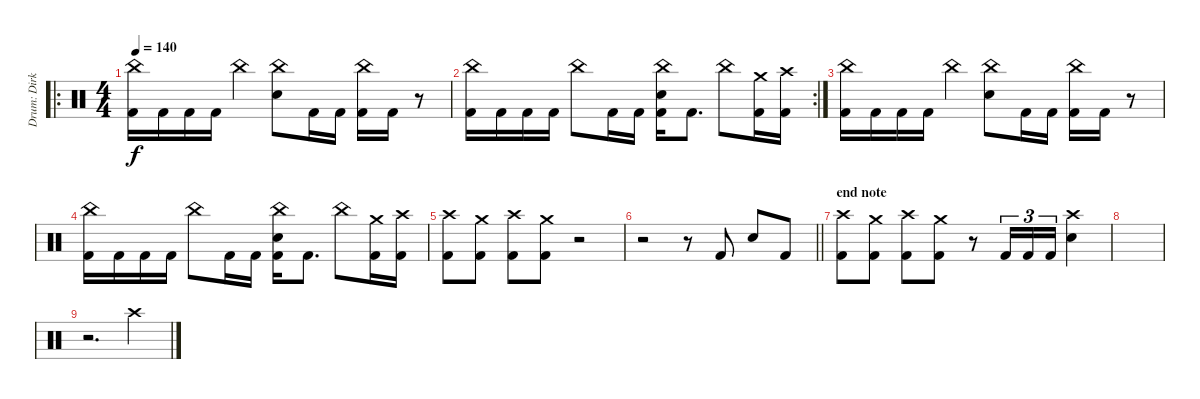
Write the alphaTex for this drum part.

\track ("Drum: Dirk" "Drum: Dirk") {instrument percussion}
\staff {score}
\articulation defaults
\ro
\ts (4 4)
\tempo 140
\clef neutral
\ks c
("China (hit)" "Kick (hit) 2").16{dy f} "Kick (hit) 2".16 "Kick (hit) 2".16 "Kick (hit) 2".16 "China (hit)".4 ("China (hit)" "Electric Snare (hit)").8 "Kick (hit) 2".16 "Kick (hit) 2".16 ("China (hit)" "Kick (hit) 2").16 "Kick (hit) 2".16 r.8 |
\rc 2
("China (hit)" "Kick (hit) 2").16 "Kick (hit) 2".16 "Kick (hit) 2".16 "Kick (hit) 2".16 "China (hit)".8 "Kick (hit) 2".16 "Kick (hit) 2".16 ("China (hit)" "Electric Snare (hit)" "Kick (hit) 2").16 "Kick (hit) 2".8{d} "China (hit)".8 ("Crash medium (hit)" "Kick (hit) 2").16 ("Crash high (hit)" "Kick (hit) 2").16 |
("China (hit)" "Kick (hit) 2").16 "Kick (hit) 2".16 "Kick (hit) 2".16 "Kick (hit) 2".16 "China (hit)".4 ("China (hit)" "Electric Snare (hit)").8 "Kick (hit) 2".16 "Kick (hit) 2".16 ("China (hit)" "Kick (hit) 2").16 "Kick (hit) 2".16 r.8 |
("China (hit)" "Kick (hit) 2").16 "Kick (hit) 2".16 "Kick (hit) 2".16 "Kick (hit) 2".16 "China (hit)".8 "Kick (hit) 2".16 "Kick (hit) 2".16 ("China (hit)" "Electric Snare (hit)" "Kick (hit) 2").16 "Kick (hit) 2".8{d} "China (hit)".8 ("Crash medium (hit)" "Kick (hit) 2").16 ("Crash high (hit)" "Kick (hit) 2").16 |
("Crash high (hit)" "Kick (hit) 2").8 ("Crash medium (hit)" "Kick (hit) 2").8 ("Crash high (hit)" "Kick (hit) 2").8 ("Crash medium (hit)" "Kick (hit) 2").8 r.2 |
\barLineRight lightlight
r.2 r.8 "Kick (hit) 2".8 "Electric Snare (hit)".8 "Kick (hit) 2".8 |
\section ("" "end note")
("Crash high (hit)" "Kick (hit) 2").8 ("Crash medium (hit)" "Kick (hit) 2").8 ("Crash high (hit)" "Kick (hit) 2").8 ("Crash medium (hit)" "Kick (hit) 2").8 r.8 "Kick (hit) 2".16{tu (3 2)} "Kick (hit) 2".16{tu (3 2)} "Kick (hit) 2".16{tu (3 2)} ("Crash high (hit)" "Electric Snare (hit)").4 |
|
r.2{d volume 0} "Crash high (hit)".4{volume 14}
